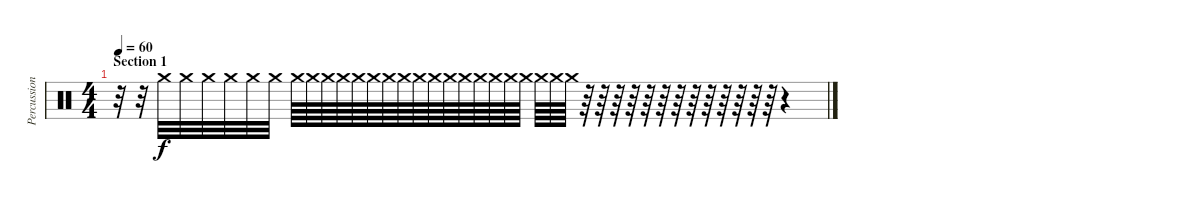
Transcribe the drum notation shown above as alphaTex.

\track ("Percussions" "Percussion") {instrument percussion}
\staff {score}
\articulation defaults
\ts (4 4)
\section ("" "Section 1")
\tempo 60
\tempo 58
\tempo 60
\clef neutral
\ks c
r.32{dy f} r.32 "Crash medium (hit)".32{volume 2} "Crash medium (hit)".32 "Crash medium (hit)".32 "Crash medium (hit)".32 "Crash medium (hit)".32 "Crash medium (hit)".32 "Crash medium (hit)".64{volume 2} "Crash medium (hit)".64 "Crash medium (hit)".64 "Crash medium (hit)".64 "Crash medium (hit)".64 "Crash medium (hit)".64 "Crash medium (hit)".64 "Crash medium (hit)".64 "Crash medium (hit)".64 "Crash medium (hit)".64 "Crash medium (hit)".64 "Crash medium (hit)".64 "Crash medium (hit)".64 "Crash medium (hit)".64 "Crash medium (hit)".64 "Crash medium (hit)".64 "Crash medium (hit)".64 "Crash medium (hit)".64 "Crash medium (hit)".64 r.64 r.64 r.64 r.64 r.64 r.64 r.64 r.64 r.64 r.64 r.64 r.64 r.64 r.4
